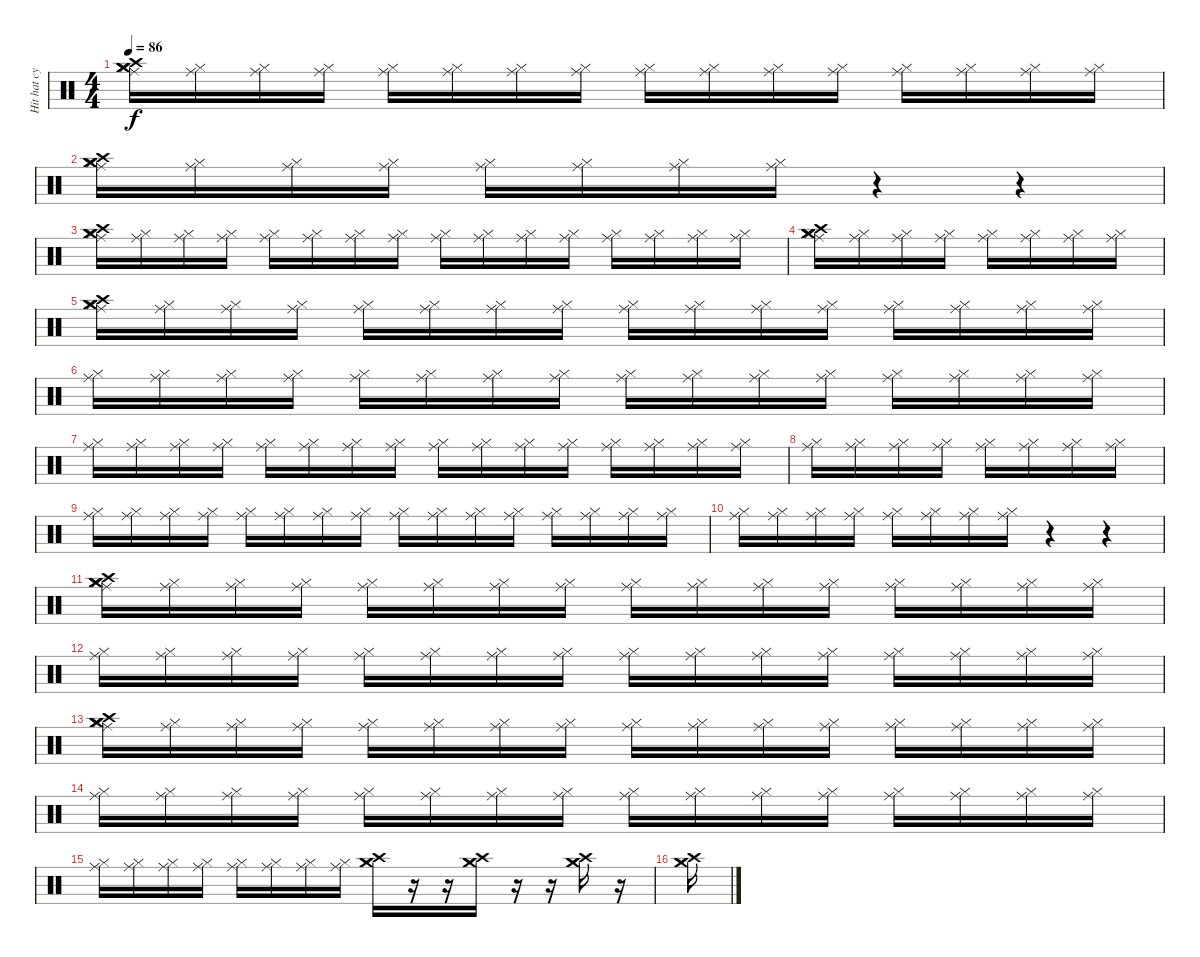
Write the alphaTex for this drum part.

\track ("Hit hat cymbal" "Hit hat cy") {instrument percussion}
\staff {score}
\articulation defaults
\ts (4 4)
\tempo 86
\clef neutral
\ks c
("Ride (middle)" "Hi-Hat (closed)" "Crash medium (hit)" "Crash medium (hit)" "Crash high (hit)").16{dy f} ("Ride (middle)" "Hi-Hat (closed)").16 ("Ride (middle)" "Hi-Hat (closed)").16 ("Ride (middle)" "Hi-Hat (closed)").16 ("Ride (middle)" "Hi-Hat (closed)").16 ("Ride (middle)" "Hi-Hat (closed)").16 ("Ride (middle)" "Hi-Hat (closed)").16 ("Ride (middle)" "Hi-Hat (closed)").16 ("Ride (middle)" "Hi-Hat (closed)").16 ("Ride (middle)" "Hi-Hat (closed)").16 ("Ride (middle)" "Hi-Hat (closed)").16 ("Ride (middle)" "Hi-Hat (closed)").16 ("Ride (middle)" "Hi-Hat (closed)").16 ("Ride (middle)" "Hi-Hat (closed)").16 ("Ride (middle)" "Hi-Hat (closed)").16 ("Ride (middle)" "Hi-Hat (closed)").16 |
("Ride (middle)" "Hi-Hat (closed)" "Crash medium (hit)" "Crash medium (hit)" "Crash high (hit)").16 ("Ride (middle)" "Hi-Hat (closed)").16 ("Ride (middle)" "Hi-Hat (closed)").16 ("Ride (middle)" "Hi-Hat (closed)").16 ("Ride (middle)" "Hi-Hat (closed)").16 ("Ride (middle)" "Hi-Hat (closed)").16 ("Ride (middle)" "Hi-Hat (closed)").16 ("Ride (middle)" "Hi-Hat (closed)").16 r.4 r.4 |
("Ride (middle)" "Hi-Hat (closed)" "Crash medium (hit)" "Crash medium (hit)" "Crash high (hit)").16 ("Ride (middle)" "Hi-Hat (closed)").16 ("Ride (middle)" "Hi-Hat (closed)").16 ("Ride (middle)" "Hi-Hat (closed)").16 ("Ride (middle)" "Hi-Hat (closed)").16 ("Ride (middle)" "Hi-Hat (closed)").16 ("Ride (middle)" "Hi-Hat (closed)").16 ("Ride (middle)" "Hi-Hat (closed)").16 ("Ride (middle)" "Hi-Hat (closed)").16 ("Ride (middle)" "Hi-Hat (closed)").16 ("Ride (middle)" "Hi-Hat (closed)").16 ("Ride (middle)" "Hi-Hat (closed)").16 ("Ride (middle)" "Hi-Hat (closed)").16 ("Ride (middle)" "Hi-Hat (closed)").16 ("Ride (middle)" "Hi-Hat (closed)").16 ("Ride (middle)" "Hi-Hat (closed)").16 |
("Ride (middle)" "Hi-Hat (closed)" "Crash medium (hit)" "Crash medium (hit)" "Crash high (hit)").16 ("Ride (middle)" "Hi-Hat (closed)").16 ("Ride (middle)" "Hi-Hat (closed)").16 ("Ride (middle)" "Hi-Hat (closed)").16 ("Ride (middle)" "Hi-Hat (closed)").16 ("Ride (middle)" "Hi-Hat (closed)").16 ("Ride (middle)" "Hi-Hat (closed)").16 ("Ride (middle)" "Hi-Hat (closed)").16 |
("Ride (middle)" "Hi-Hat (closed)" "Crash medium (hit)" "Crash medium (hit)" "Crash high (hit)").16 ("Ride (middle)" "Hi-Hat (closed)").16 ("Ride (middle)" "Hi-Hat (closed)").16 ("Ride (middle)" "Hi-Hat (closed)").16 ("Ride (middle)" "Hi-Hat (closed)").16 ("Ride (middle)" "Hi-Hat (closed)").16 ("Ride (middle)" "Hi-Hat (closed)").16 ("Ride (middle)" "Hi-Hat (closed)").16 ("Ride (middle)" "Hi-Hat (closed)").16 ("Ride (middle)" "Hi-Hat (closed)").16 ("Ride (middle)" "Hi-Hat (closed)").16 ("Ride (middle)" "Hi-Hat (closed)").16 ("Ride (middle)" "Hi-Hat (closed)").16 ("Ride (middle)" "Hi-Hat (closed)").16 ("Ride (middle)" "Hi-Hat (closed)").16 ("Ride (middle)" "Hi-Hat (closed)").16 |
("Ride (middle)" "Hi-Hat (closed)").16 ("Ride (middle)" "Hi-Hat (closed)").16 ("Ride (middle)" "Hi-Hat (closed)").16 ("Ride (middle)" "Hi-Hat (closed)").16 ("Ride (middle)" "Hi-Hat (closed)").16 ("Ride (middle)" "Hi-Hat (closed)").16 ("Ride (middle)" "Hi-Hat (closed)").16 ("Ride (middle)" "Hi-Hat (closed)").16 ("Ride (middle)" "Hi-Hat (closed)").16 ("Ride (middle)" "Hi-Hat (closed)").16 ("Ride (middle)" "Hi-Hat (closed)").16 ("Ride (middle)" "Hi-Hat (closed)").16 ("Ride (middle)" "Hi-Hat (closed)").16 ("Ride (middle)" "Hi-Hat (closed)").16 ("Ride (middle)" "Hi-Hat (closed)").16 ("Ride (middle)" "Hi-Hat (closed)").16 |
("Ride (middle)" "Hi-Hat (closed)").16 ("Ride (middle)" "Hi-Hat (closed)").16 ("Ride (middle)" "Hi-Hat (closed)").16 ("Ride (middle)" "Hi-Hat (closed)").16 ("Ride (middle)" "Hi-Hat (closed)").16 ("Ride (middle)" "Hi-Hat (closed)").16 ("Ride (middle)" "Hi-Hat (closed)").16 ("Ride (middle)" "Hi-Hat (closed)").16 ("Ride (middle)" "Hi-Hat (closed)").16 ("Ride (middle)" "Hi-Hat (closed)").16 ("Ride (middle)" "Hi-Hat (closed)").16 ("Ride (middle)" "Hi-Hat (closed)").16 ("Ride (middle)" "Hi-Hat (closed)").16 ("Ride (middle)" "Hi-Hat (closed)").16 ("Ride (middle)" "Hi-Hat (closed)").16 ("Ride (middle)" "Hi-Hat (closed)").16 |
("Ride (middle)" "Hi-Hat (closed)").16 ("Ride (middle)" "Hi-Hat (closed)").16 ("Ride (middle)" "Hi-Hat (closed)").16 ("Ride (middle)" "Hi-Hat (closed)").16 ("Ride (middle)" "Hi-Hat (closed)").16 ("Ride (middle)" "Hi-Hat (closed)").16 ("Ride (middle)" "Hi-Hat (closed)").16 ("Ride (middle)" "Hi-Hat (closed)").16 |
("Ride (middle)" "Hi-Hat (closed)").16 ("Ride (middle)" "Hi-Hat (closed)").16 ("Ride (middle)" "Hi-Hat (closed)").16 ("Ride (middle)" "Hi-Hat (closed)").16 ("Ride (middle)" "Hi-Hat (closed)").16 ("Ride (middle)" "Hi-Hat (closed)").16 ("Ride (middle)" "Hi-Hat (closed)").16 ("Ride (middle)" "Hi-Hat (closed)").16 ("Ride (middle)" "Hi-Hat (closed)").16 ("Ride (middle)" "Hi-Hat (closed)").16 ("Ride (middle)" "Hi-Hat (closed)").16 ("Ride (middle)" "Hi-Hat (closed)").16 ("Ride (middle)" "Hi-Hat (closed)").16 ("Ride (middle)" "Hi-Hat (closed)").16 ("Ride (middle)" "Hi-Hat (closed)").16 ("Ride (middle)" "Hi-Hat (closed)").16 |
("Ride (middle)" "Hi-Hat (closed)").16 ("Ride (middle)" "Hi-Hat (closed)").16 ("Ride (middle)" "Hi-Hat (closed)").16 ("Ride (middle)" "Hi-Hat (closed)").16 ("Ride (middle)" "Hi-Hat (closed)").16 ("Ride (middle)" "Hi-Hat (closed)").16 ("Ride (middle)" "Hi-Hat (closed)").16 ("Ride (middle)" "Hi-Hat (closed)").16 r.4 r.4 |
("Ride (middle)" "Hi-Hat (closed)" "Crash medium (hit)" "Crash medium (hit)" "Crash high (hit)").16 ("Ride (middle)" "Hi-Hat (closed)").16 ("Ride (middle)" "Hi-Hat (closed)").16 ("Ride (middle)" "Hi-Hat (closed)").16 ("Ride (middle)" "Hi-Hat (closed)").16 ("Ride (middle)" "Hi-Hat (closed)").16 ("Ride (middle)" "Hi-Hat (closed)").16 ("Ride (middle)" "Hi-Hat (closed)").16 ("Ride (middle)" "Hi-Hat (closed)").16 ("Ride (middle)" "Hi-Hat (closed)").16 ("Ride (middle)" "Hi-Hat (closed)").16 ("Ride (middle)" "Hi-Hat (closed)").16 ("Ride (middle)" "Hi-Hat (closed)").16 ("Ride (middle)" "Hi-Hat (closed)").16 ("Ride (middle)" "Hi-Hat (closed)").16 ("Ride (middle)" "Hi-Hat (closed)").16 |
("Ride (middle)" "Hi-Hat (closed)").16 ("Ride (middle)" "Hi-Hat (closed)").16 ("Ride (middle)" "Hi-Hat (closed)").16 ("Ride (middle)" "Hi-Hat (closed)").16 ("Ride (middle)" "Hi-Hat (closed)").16 ("Ride (middle)" "Hi-Hat (closed)").16 ("Ride (middle)" "Hi-Hat (closed)").16 ("Ride (middle)" "Hi-Hat (closed)").16 ("Ride (middle)" "Hi-Hat (closed)").16 ("Ride (middle)" "Hi-Hat (closed)").16 ("Ride (middle)" "Hi-Hat (closed)").16 ("Ride (middle)" "Hi-Hat (closed)").16 ("Ride (middle)" "Hi-Hat (closed)").16 ("Ride (middle)" "Hi-Hat (closed)").16 ("Ride (middle)" "Hi-Hat (closed)").16 ("Ride (middle)" "Hi-Hat (closed)").16 |
("Ride (middle)" "Hi-Hat (closed)" "Crash medium (hit)" "Crash medium (hit)" "Crash high (hit)").16 ("Ride (middle)" "Hi-Hat (closed)").16 ("Ride (middle)" "Hi-Hat (closed)").16 ("Ride (middle)" "Hi-Hat (closed)").16 ("Ride (middle)" "Hi-Hat (closed)").16 ("Ride (middle)" "Hi-Hat (closed)").16 ("Ride (middle)" "Hi-Hat (closed)").16 ("Ride (middle)" "Hi-Hat (closed)").16 ("Ride (middle)" "Hi-Hat (closed)").16 ("Ride (middle)" "Hi-Hat (closed)").16 ("Ride (middle)" "Hi-Hat (closed)").16 ("Ride (middle)" "Hi-Hat (closed)").16 ("Ride (middle)" "Hi-Hat (closed)").16 ("Ride (middle)" "Hi-Hat (closed)").16 ("Ride (middle)" "Hi-Hat (closed)").16 ("Ride (middle)" "Hi-Hat (closed)").16 |
("Ride (middle)" "Hi-Hat (closed)").16 ("Ride (middle)" "Hi-Hat (closed)").16 ("Ride (middle)" "Hi-Hat (closed)").16 ("Ride (middle)" "Hi-Hat (closed)").16 ("Ride (middle)" "Hi-Hat (closed)").16 ("Ride (middle)" "Hi-Hat (closed)").16 ("Ride (middle)" "Hi-Hat (closed)").16 ("Ride (middle)" "Hi-Hat (closed)").16 ("Ride (middle)" "Hi-Hat (closed)").16 ("Ride (middle)" "Hi-Hat (closed)").16 ("Ride (middle)" "Hi-Hat (closed)").16 ("Ride (middle)" "Hi-Hat (closed)").16 ("Ride (middle)" "Hi-Hat (closed)").16 ("Ride (middle)" "Hi-Hat (closed)").16 ("Ride (middle)" "Hi-Hat (closed)").16 ("Ride (middle)" "Hi-Hat (closed)").16 |
("Ride (middle)" "Hi-Hat (closed)").16 ("Ride (middle)" "Hi-Hat (closed)").16 ("Ride (middle)" "Hi-Hat (closed)").16 ("Ride (middle)" "Hi-Hat (closed)").16 ("Ride (middle)" "Hi-Hat (closed)").16 ("Ride (middle)" "Hi-Hat (closed)").16 ("Ride (middle)" "Hi-Hat (closed)").16 ("Ride (middle)" "Hi-Hat (closed)").16 ("Crash high (hit)" "Crash medium (hit)" "Crash medium (hit)").16 r.16 r.16 ("Crash high (hit)" "Crash medium (hit)" "Crash medium (hit)").16 r.16 r.16 ("Crash high (hit)" "Crash medium (hit)" "Crash medium (hit)").16 r.16 |
("Crash high (hit)" "Crash medium (hit)" "Crash medium (hit)").16
